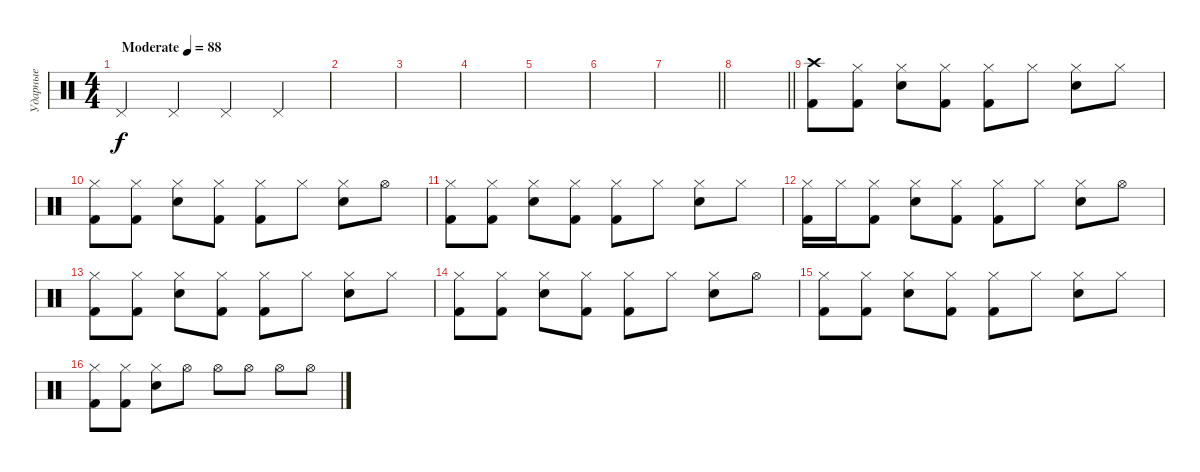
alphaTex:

\track ("Ударные" "Ударные") {instrument percussion}
\staff {score}
\articulation defaults
\ts (4 4)
\tempo (88 "Moderate")
\clef neutral
\ks c "Pedal Hi-Hat (hit)".4{dy f} "Pedal Hi-Hat (hit)".4 "Pedal Hi-Hat (hit)".4 "Pedal Hi-Hat (hit)".4
|
|
|
|
|
|
\barLineRight lightlight
|
\barLineRight lightlight
|
("Crash high (hit)" "Kick (hit) 2").8 ("Hi-Hat (closed)" "Kick (hit) 2").8 ("Hi-Hat (closed)" "Snare (hit) 2").8 ("Hi-Hat (closed)" "Kick (hit) 2").8 ("Hi-Hat (closed)" "Kick (hit) 2").8 "Hi-Hat (closed)".8 ("Hi-Hat (closed)" "Snare (hit) 2").8 "Hi-Hat (closed)".8 |
("Hi-Hat (closed)" "Kick (hit) 2").8 ("Hi-Hat (closed)" "Kick (hit) 2").8 ("Hi-Hat (closed)" "Snare (hit) 2").8 ("Hi-Hat (closed)" "Kick (hit) 2").8 ("Hi-Hat (closed)" "Kick (hit) 2").8 "Hi-Hat (closed)".8 ("Hi-Hat (closed)" "Snare (hit) 2").8 "Hi-Hat (open)".8 |
("Hi-Hat (closed)" "Kick (hit) 2").8 ("Hi-Hat (closed)" "Kick (hit) 2").8 ("Hi-Hat (closed)" "Snare (hit) 2").8 ("Hi-Hat (closed)" "Kick (hit) 2").8 ("Hi-Hat (closed)" "Kick (hit) 2").8 "Hi-Hat (closed)".8 ("Hi-Hat (closed)" "Snare (hit) 2").8 "Hi-Hat (closed)".8 |
("Hi-Hat (closed)" "Kick (hit) 2").16 "Hi-Hat (closed)".16 ("Hi-Hat (closed)" "Kick (hit) 2").8 ("Hi-Hat (closed)" "Snare (hit) 2").8 ("Hi-Hat (closed)" "Kick (hit) 2").8 ("Hi-Hat (closed)" "Kick (hit) 2").8 "Hi-Hat (closed)".8 ("Hi-Hat (closed)" "Snare (hit) 2").8 "Hi-Hat (open)".8 |
("Hi-Hat (closed)" "Kick (hit) 2").8 ("Hi-Hat (closed)" "Kick (hit) 2").8 ("Hi-Hat (closed)" "Snare (hit) 2").8 ("Hi-Hat (closed)" "Kick (hit) 2").8 ("Hi-Hat (closed)" "Kick (hit) 2").8 "Hi-Hat (closed)".8 ("Hi-Hat (closed)" "Snare (hit) 2").8 "Hi-Hat (closed)".8 |
("Hi-Hat (closed)" "Kick (hit) 2").8 ("Hi-Hat (closed)" "Kick (hit) 2").8 ("Hi-Hat (closed)" "Snare (hit) 2").8 ("Hi-Hat (closed)" "Kick (hit) 2").8 ("Hi-Hat (closed)" "Kick (hit) 2").8 "Hi-Hat (closed)".8 ("Hi-Hat (closed)" "Snare (hit) 2").8 "Hi-Hat (open)".8 |
("Hi-Hat (closed)" "Kick (hit) 2").8 ("Hi-Hat (closed)" "Kick (hit) 2").8 ("Hi-Hat (closed)" "Snare (hit) 2").8 ("Hi-Hat (closed)" "Kick (hit) 2").8 ("Hi-Hat (closed)" "Kick (hit) 2").8 "Hi-Hat (closed)".8 ("Hi-Hat (closed)" "Snare (hit) 2").8 "Hi-Hat (closed)".8 |
("Hi-Hat (closed)" "Kick (hit) 2").8 ("Hi-Hat (closed)" "Kick (hit) 2").8 ("Hi-Hat (closed)" "Snare (hit) 2").8 "Hi-Hat (open)".8 "Hi-Hat (open)".8 "Hi-Hat (open)".8 "Hi-Hat (open)".8 "Hi-Hat (open)".8
